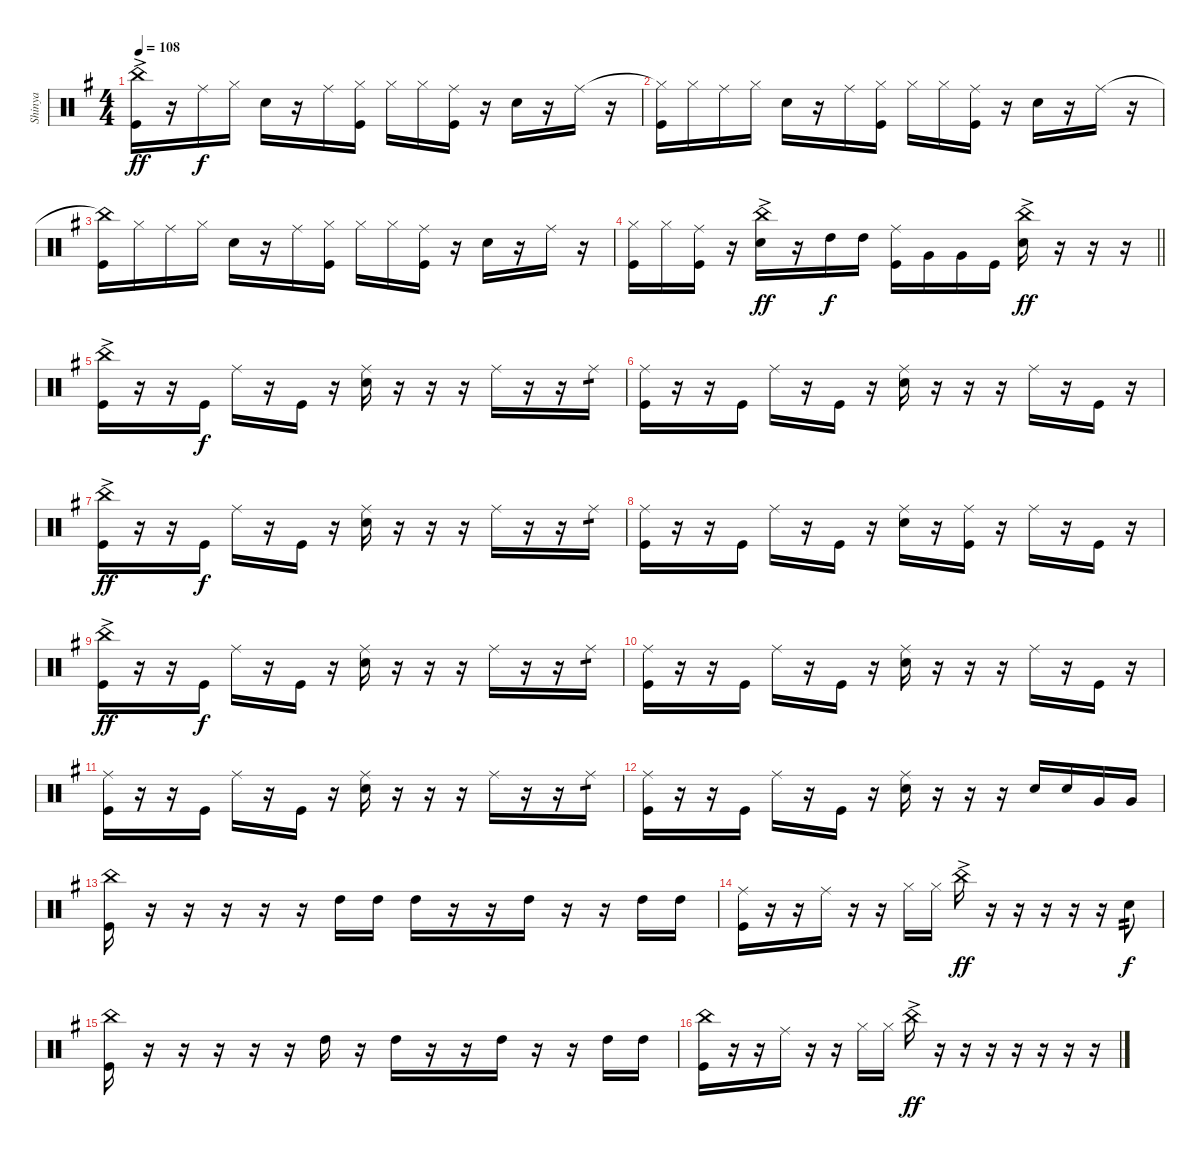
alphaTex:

\track ("Shinya" "Shinya") {instrument percussion}
\staff {score}
\articulation defaults
\ts (4 4)
\tempo 108
\clef neutral
\ks g
("China (hit)"{ac} "Kick (hit)").16{dy ff} r.16 "Ride (middle)".16{dy f} "Hi-Hat (closed)".16 "Electric Snare (hit)".16 r.16 "Ride (middle)".16 ("Hi-Hat (closed)" "Kick (hit)").16 "Hi-Hat (closed)".16 "Hi-Hat (closed)".16 ("Ride (middle)" "Kick (hit)").16 r.16 "Electric Snare (hit)".16 r.16 "Ride (middle)".16 r.16 |
("Hi-Hat (closed)"{t} "Kick (hit)").16 "Hi-Hat (closed)".16 "Ride (middle)".16 "Hi-Hat (closed)".16 "Electric Snare (hit)".16 r.16 "Ride (middle)".16 ("Hi-Hat (closed)" "Kick (hit)").16 "Hi-Hat (closed)".16 "Hi-Hat (closed)".16 ("Ride (middle)" "Kick (hit)").16 r.16 "Electric Snare (hit)".16 r.16 "Ride (middle)".16 r.16 |
("China (hit)"{t} "Kick (hit)").16 "Hi-Hat (closed)".16 "Ride (middle)".16 "Hi-Hat (closed)".16 "Electric Snare (hit)".16 r.16 "Ride (middle)".16 ("Hi-Hat (closed)" "Kick (hit)").16 "Hi-Hat (closed)".16 "Hi-Hat (closed)".16 ("Ride (middle)" "Kick (hit)").16 r.16 "Electric Snare (hit)".16 r.16 "Ride (middle)".16 r.16 |
\barLineRight lightlight
("Hi-Hat (closed)" "Kick (hit)").16 "Hi-Hat (closed)".16 ("Ride (middle)" "Kick (hit)").16 r.16 ("China (hit)"{ac} "Electric Snare (hit)").16{dy ff} r.16 "High Tom (hit)".16{dy f} "High Tom (hit)".16 ("Ride (middle)" "Kick (hit)").16 "Very Low Tom (hit)".16 "Very Low Tom (hit)".16 "Kick (hit)".16 ("China (hit)"{ac} "Electric Snare (hit)").16{dy ff} r.16 r.16 r.16 |
("China (hit)"{ac} "Kick (hit)").16 r.16 r.16 "Kick (hit)".16{dy f} "Ride (middle)".16 r.16 "Kick (hit)".16 r.16 ("Ride (middle)" "Electric Snare (hit)").16 r.16 r.16 r.16 "Ride (middle)".16 r.16 r.16 "Ride (middle)".16{tp 1} |
("Ride (middle)" "Kick (hit)").16 r.16 r.16 "Kick (hit)".16 "Ride (middle)".16 r.16 "Kick (hit)".16 r.16 ("Ride (middle)" "Electric Snare (hit)").16 r.16 r.16 r.16 "Ride (middle)".16 r.16 "Kick (hit)".16 r.16 |
("China (hit)"{ac} "Kick (hit)").16{dy ff} r.16 r.16 "Kick (hit)".16{dy f} "Ride (middle)".16 r.16 "Kick (hit)".16 r.16 ("Ride (middle)" "Electric Snare (hit)").16 r.16 r.16 r.16 "Ride (middle)".16 r.16 r.16 "Ride (middle)".16{tp 1} |
("Ride (middle)" "Kick (hit)").16 r.16 r.16 "Kick (hit)".16 "Ride (middle)".16 r.16 "Kick (hit)".16 r.16 ("Ride (middle)" "Electric Snare (hit)").16 r.16 ("Ride (middle)" "Kick (hit)").16 r.16 "Ride (middle)".16 r.16 "Kick (hit)".16 r.16 |
("China (hit)"{ac} "Kick (hit)").16{dy ff} r.16 r.16 "Kick (hit)".16{dy f} "Ride (middle)".16 r.16 "Kick (hit)".16 r.16 ("Ride (middle)" "Electric Snare (hit)").16 r.16 r.16 r.16 "Ride (middle)".16 r.16 r.16 "Ride (middle)".16{tp 1} |
("Ride (middle)" "Kick (hit)").16 r.16 r.16 "Kick (hit)".16 "Ride (middle)".16 r.16 "Kick (hit)".16 r.16 ("Ride (middle)" "Electric Snare (hit)").16 r.16 r.16 r.16 "Ride (middle)".16 r.16 "Kick (hit)".16 r.16 |
("Ride (middle)" "Kick (hit)").16 r.16 r.16 "Kick (hit)".16 "Ride (middle)".16 r.16 "Kick (hit)".16 r.16 ("Ride (middle)" "Electric Snare (hit)").16 r.16 r.16 r.16 "Ride (middle)".16 r.16 r.16 "Ride (middle)".16{tp 1} |
("Ride (middle)" "Kick (hit)").16 r.16 r.16 "Kick (hit)".16 "Ride (middle)".16 r.16 "Kick (hit)".16 r.16 ("Ride (middle)" "Electric Snare (hit)").16 r.16 r.16 r.16 "Electric Snare (hit)".16 "Electric Snare (hit)".16 "Very Low Tom (hit)".16 "Very Low Tom (hit)".16 |
("China (hit)" "Kick (hit)").16 r.16 r.16 r.16 r.16 r.16 "High Tom (hit)".16 "High Tom (hit)".16 "High Tom (hit)".16 r.16 r.16 "High Tom (hit)".16 r.16 r.16 "High Tom (hit)".16 "High Tom (hit)".16 |
("Ride (middle)" "Kick (hit)").16 r.16 r.16 "Ride (middle)".16 r.16 r.16 "Hi-Hat (closed)".16 "Hi-Hat (closed)".16 "China (hit)"{ac}.16{dy ff} r.16 r.16 r.16 r.16 r.16 "Electric Snare (hit)".8{tp 2 dy f} |
("China (hit)" "Kick (hit)").16 r.16 r.16 r.16 r.16 r.16 "High Tom (hit)".16 r.16 "High Tom (hit)".16 r.16 r.16 "High Tom (hit)".16 r.16 r.16 "High Tom (hit)".16 "High Tom (hit)".16 |
("China (hit)" "Kick (hit)").16 r.16 r.16 "Ride (middle)".16 r.16 r.16 "Hi-Hat (closed)".16 "Hi-Hat (closed)".16 "China (hit)"{ac}.16{dy ff} r.16 r.16 r.16 r.16 r.16 r.16 r.16
